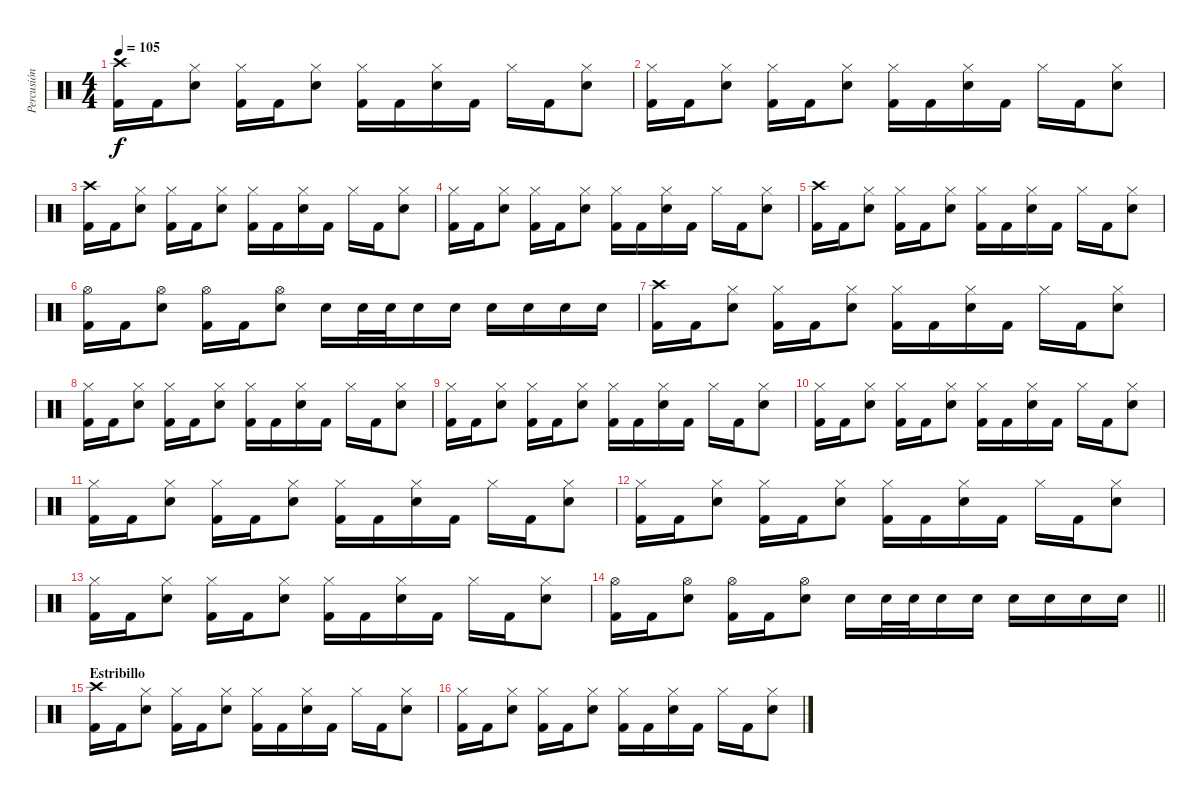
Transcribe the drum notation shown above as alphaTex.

\track ("Percusión" "Percusión") {instrument percussion}
\staff {score}
\articulation defaults
\ts (4 4)
\tempo 105
\clef neutral
\ks c
("Crash high (hit)" "Kick (hit) 2").16{dy f} "Kick (hit) 2".16 ("Hi-Hat (closed)" "Electric Snare (hit)").8 ("Hi-Hat (closed)" "Kick (hit) 2").16 "Kick (hit) 2".16 ("Hi-Hat (closed)" "Electric Snare (hit)").8 ("Hi-Hat (closed)" "Kick (hit) 2").16 "Kick (hit) 2".16 ("Hi-Hat (closed)" "Electric Snare (hit)").16 "Kick (hit) 2".16 "Hi-Hat (closed)".16 "Kick (hit) 2".16 ("Hi-Hat (closed)" "Electric Snare (hit)").8 |
("Hi-Hat (closed)" "Kick (hit) 2").16 "Kick (hit) 2".16 ("Hi-Hat (closed)" "Electric Snare (hit)").8 ("Hi-Hat (closed)" "Kick (hit) 2").16 "Kick (hit) 2".16 ("Hi-Hat (closed)" "Electric Snare (hit)").8 ("Hi-Hat (closed)" "Kick (hit) 2").16 "Kick (hit) 2".16 ("Hi-Hat (closed)" "Electric Snare (hit)").16 "Kick (hit) 2".16 "Hi-Hat (closed)".16 "Kick (hit) 2".16 ("Hi-Hat (closed)" "Electric Snare (hit)").8 |
("Crash high (hit)" "Kick (hit) 2").16 "Kick (hit) 2".16 ("Hi-Hat (closed)" "Electric Snare (hit)").8 ("Hi-Hat (closed)" "Kick (hit) 2").16 "Kick (hit) 2".16 ("Hi-Hat (closed)" "Electric Snare (hit)").8 ("Hi-Hat (closed)" "Kick (hit) 2").16 "Kick (hit) 2".16 ("Hi-Hat (closed)" "Electric Snare (hit)").16 "Kick (hit) 2".16 "Hi-Hat (closed)".16 "Kick (hit) 2".16 ("Hi-Hat (closed)" "Electric Snare (hit)").8 |
("Hi-Hat (closed)" "Kick (hit) 2").16 "Kick (hit) 2".16 ("Hi-Hat (closed)" "Electric Snare (hit)").8 ("Hi-Hat (closed)" "Kick (hit) 2").16 "Kick (hit) 2".16 ("Hi-Hat (closed)" "Electric Snare (hit)").8 ("Hi-Hat (closed)" "Kick (hit) 2").16 "Kick (hit) 2".16 ("Hi-Hat (closed)" "Electric Snare (hit)").16 "Kick (hit) 2".16 "Hi-Hat (closed)".16 "Kick (hit) 2".16 ("Hi-Hat (closed)" "Electric Snare (hit)").8 |
("Crash high (hit)" "Kick (hit) 2").16 "Kick (hit) 2".16 ("Hi-Hat (closed)" "Electric Snare (hit)").8 ("Hi-Hat (closed)" "Kick (hit) 2").16 "Kick (hit) 2".16 ("Hi-Hat (closed)" "Electric Snare (hit)").8 ("Hi-Hat (closed)" "Kick (hit) 2").16 "Kick (hit) 2".16 ("Hi-Hat (closed)" "Electric Snare (hit)").16 "Kick (hit) 2".16 "Hi-Hat (closed)".16 "Kick (hit) 2".16 ("Hi-Hat (closed)" "Electric Snare (hit)").8 |
("Hi-Hat (open)" "Kick (hit) 2").16 "Kick (hit) 2".16 ("Hi-Hat (open)" "Electric Snare (hit)").8 ("Hi-Hat (open)" "Kick (hit) 2").16 "Kick (hit) 2".16 ("Hi-Hat (open)" "Electric Snare (hit)").8 "Electric Snare (hit)".16 "Electric Snare (hit)".32 "Electric Snare (hit)".32 "Electric Snare (hit)".16 "Electric Snare (hit)".16 "Electric Snare (hit)".16 "Electric Snare (hit)".16 "Electric Snare (hit)".16 "Electric Snare (hit)".16 |
("Crash high (hit)" "Kick (hit) 2").16 "Kick (hit) 2".16 ("Hi-Hat (closed)" "Electric Snare (hit)").8 ("Hi-Hat (closed)" "Kick (hit) 2").16 "Kick (hit) 2".16 ("Hi-Hat (closed)" "Electric Snare (hit)").8 ("Hi-Hat (closed)" "Kick (hit) 2").16 "Kick (hit) 2".16 ("Hi-Hat (closed)" "Electric Snare (hit)").16 "Kick (hit) 2".16 "Hi-Hat (closed)".16 "Kick (hit) 2".16 ("Hi-Hat (closed)" "Electric Snare (hit)").8 |
("Hi-Hat (closed)" "Kick (hit) 2").16 "Kick (hit) 2".16 ("Hi-Hat (closed)" "Electric Snare (hit)").8 ("Hi-Hat (closed)" "Kick (hit) 2").16 "Kick (hit) 2".16 ("Hi-Hat (closed)" "Electric Snare (hit)").8 ("Hi-Hat (closed)" "Kick (hit) 2").16 "Kick (hit) 2".16 ("Hi-Hat (closed)" "Electric Snare (hit)").16 "Kick (hit) 2".16 "Hi-Hat (closed)".16 "Kick (hit) 2".16 ("Hi-Hat (closed)" "Electric Snare (hit)").8 |
("Hi-Hat (closed)" "Kick (hit) 2").16 "Kick (hit) 2".16 ("Hi-Hat (closed)" "Electric Snare (hit)").8 ("Hi-Hat (closed)" "Kick (hit) 2").16 "Kick (hit) 2".16 ("Hi-Hat (closed)" "Electric Snare (hit)").8 ("Hi-Hat (closed)" "Kick (hit) 2").16 "Kick (hit) 2".16 ("Hi-Hat (closed)" "Electric Snare (hit)").16 "Kick (hit) 2".16 "Hi-Hat (closed)".16 "Kick (hit) 2".16 ("Hi-Hat (closed)" "Electric Snare (hit)").8 |
("Hi-Hat (closed)" "Kick (hit) 2").16 "Kick (hit) 2".16 ("Hi-Hat (closed)" "Electric Snare (hit)").8 ("Hi-Hat (closed)" "Kick (hit) 2").16 "Kick (hit) 2".16 ("Hi-Hat (closed)" "Electric Snare (hit)").8 ("Hi-Hat (closed)" "Kick (hit) 2").16 "Kick (hit) 2".16 ("Hi-Hat (closed)" "Electric Snare (hit)").16 "Kick (hit) 2".16 "Hi-Hat (closed)".16 "Kick (hit) 2".16 ("Hi-Hat (closed)" "Electric Snare (hit)").8 |
("Hi-Hat (closed)" "Kick (hit) 2").16 "Kick (hit) 2".16 ("Hi-Hat (closed)" "Electric Snare (hit)").8 ("Hi-Hat (closed)" "Kick (hit) 2").16 "Kick (hit) 2".16 ("Hi-Hat (closed)" "Electric Snare (hit)").8 ("Hi-Hat (closed)" "Kick (hit) 2").16 "Kick (hit) 2".16 ("Hi-Hat (closed)" "Electric Snare (hit)").16 "Kick (hit) 2".16 "Hi-Hat (closed)".16 "Kick (hit) 2".16 ("Hi-Hat (closed)" "Electric Snare (hit)").8 |
("Hi-Hat (closed)" "Kick (hit) 2").16 "Kick (hit) 2".16 ("Hi-Hat (closed)" "Electric Snare (hit)").8 ("Hi-Hat (closed)" "Kick (hit) 2").16 "Kick (hit) 2".16 ("Hi-Hat (closed)" "Electric Snare (hit)").8 ("Hi-Hat (closed)" "Kick (hit) 2").16 "Kick (hit) 2".16 ("Hi-Hat (closed)" "Electric Snare (hit)").16 "Kick (hit) 2".16 "Hi-Hat (closed)".16 "Kick (hit) 2".16 ("Hi-Hat (closed)" "Electric Snare (hit)").8 |
("Hi-Hat (closed)" "Kick (hit) 2").16 "Kick (hit) 2".16 ("Hi-Hat (closed)" "Electric Snare (hit)").8 ("Hi-Hat (closed)" "Kick (hit) 2").16 "Kick (hit) 2".16 ("Hi-Hat (closed)" "Electric Snare (hit)").8 ("Hi-Hat (closed)" "Kick (hit) 2").16 "Kick (hit) 2".16 ("Hi-Hat (closed)" "Electric Snare (hit)").16 "Kick (hit) 2".16 "Hi-Hat (closed)".16 "Kick (hit) 2".16 ("Hi-Hat (closed)" "Electric Snare (hit)").8 |
\barLineRight lightlight
("Hi-Hat (open)" "Kick (hit) 2").16 "Kick (hit) 2".16 ("Hi-Hat (open)" "Electric Snare (hit)").8 ("Hi-Hat (open)" "Kick (hit) 2").16 "Kick (hit) 2".16 ("Hi-Hat (open)" "Electric Snare (hit)").8 "Electric Snare (hit)".16 "Electric Snare (hit)".32 "Electric Snare (hit)".32 "Electric Snare (hit)".16 "Electric Snare (hit)".16 "Electric Snare (hit)".16 "Electric Snare (hit)".16 "Electric Snare (hit)".16 "Electric Snare (hit)".16 |
\section ("" "Estribillo")
("Crash high (hit)" "Kick (hit) 2").16 "Kick (hit) 2".16 ("Hi-Hat (closed)" "Electric Snare (hit)").8 ("Hi-Hat (closed)" "Kick (hit) 2").16 "Kick (hit) 2".16 ("Hi-Hat (closed)" "Electric Snare (hit)").8 ("Hi-Hat (closed)" "Kick (hit) 2").16 "Kick (hit) 2".16 ("Hi-Hat (closed)" "Electric Snare (hit)").16 "Kick (hit) 2".16 "Hi-Hat (closed)".16 "Kick (hit) 2".16 ("Hi-Hat (closed)" "Electric Snare (hit)").8 |
("Hi-Hat (closed)" "Kick (hit) 2").16 "Kick (hit) 2".16 ("Hi-Hat (closed)" "Electric Snare (hit)").8 ("Hi-Hat (closed)" "Kick (hit) 2").16 "Kick (hit) 2".16 ("Hi-Hat (closed)" "Electric Snare (hit)").8 ("Hi-Hat (closed)" "Kick (hit) 2").16 "Kick (hit) 2".16 ("Hi-Hat (closed)" "Electric Snare (hit)").16 "Kick (hit) 2".16 "Hi-Hat (closed)".16 "Kick (hit) 2".16 ("Hi-Hat (closed)" "Electric Snare (hit)").8
